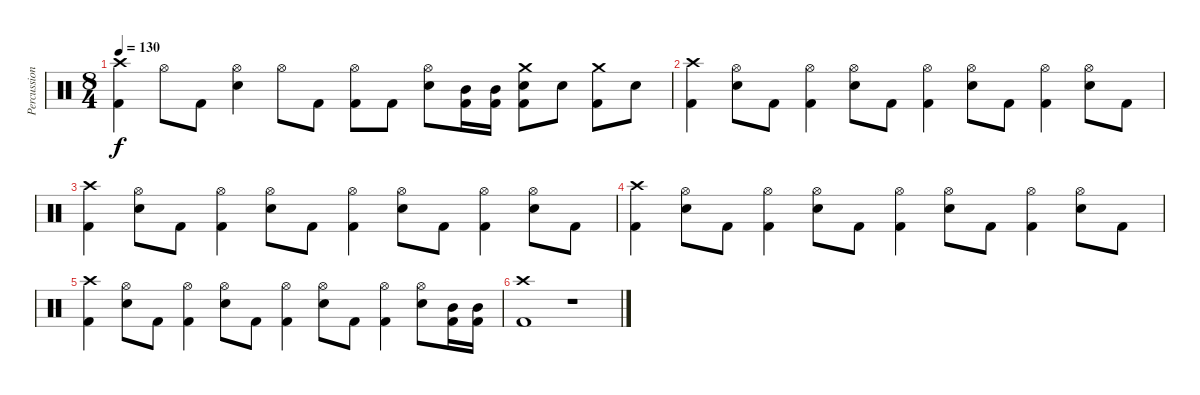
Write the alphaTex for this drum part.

\track ("Percussion" "Percussion") {instrument percussion}
\staff {score}
\articulation defaults
\ts (8 4)
\tempo 130
\clef neutral
\ks c
("Crash high (hit)" "Kick (hit) 2").4{dy f} "Hi-Hat (open)".8 "Kick (hit) 2".8 ("Hi-Hat (open)" "Snare (hit) 2").4 "Hi-Hat (open)".8 "Kick (hit) 2".8 ("Hi-Hat (open)" "Kick (hit) 2").8 "Kick (hit) 2".8 ("Hi-Hat (open)" "Snare (hit) 2").8 ("Mid Tom (hit)" "Kick (hit) 2").16 ("Mid Tom (hit)" "Kick (hit) 2").16 ("Crash medium (hit)" "Snare (hit) 2" "Kick (hit) 2").8 "Snare (hit) 2".8 ("Crash medium (hit)" "Kick (hit) 2").8 "Snare (hit) 2".8 |
("Crash high (hit)" "Kick (hit) 2").4 ("Hi-Hat (open)" "Snare (hit) 2").8 "Kick (hit) 2".8 ("Hi-Hat (open)" "Kick (hit) 2").4 ("Hi-Hat (open)" "Snare (hit) 2").8 "Kick (hit) 2".8 ("Hi-Hat (open)" "Kick (hit) 2").4 ("Hi-Hat (open)" "Snare (hit) 2").8 "Kick (hit) 2".8 ("Hi-Hat (open)" "Kick (hit) 2").4 ("Hi-Hat (open)" "Snare (hit) 2").8 "Kick (hit) 2".8 |
("Crash high (hit)" "Kick (hit) 2").4 ("Hi-Hat (open)" "Snare (hit) 2").8 "Kick (hit) 2".8 ("Hi-Hat (open)" "Kick (hit) 2").4 ("Hi-Hat (open)" "Snare (hit) 2").8 "Kick (hit) 2".8 ("Hi-Hat (open)" "Kick (hit) 2").4 ("Hi-Hat (open)" "Snare (hit) 2").8 "Kick (hit) 2".8 ("Hi-Hat (open)" "Kick (hit) 2").4 ("Hi-Hat (open)" "Snare (hit) 2").8 "Kick (hit) 2".8 |
("Crash high (hit)" "Kick (hit) 2").4 ("Hi-Hat (open)" "Snare (hit) 2").8 "Kick (hit) 2".8 ("Hi-Hat (open)" "Kick (hit) 2").4 ("Hi-Hat (open)" "Snare (hit) 2").8 "Kick (hit) 2".8 ("Hi-Hat (open)" "Kick (hit) 2").4 ("Hi-Hat (open)" "Snare (hit) 2").8 "Kick (hit) 2".8 ("Hi-Hat (open)" "Kick (hit) 2").4 ("Hi-Hat (open)" "Snare (hit) 2").8 "Kick (hit) 2".8 |
("Crash high (hit)" "Kick (hit) 2").4 ("Hi-Hat (open)" "Snare (hit) 2").8 "Kick (hit) 2".8 ("Hi-Hat (open)" "Kick (hit) 2").4 ("Hi-Hat (open)" "Snare (hit) 2").8 "Kick (hit) 2".8 ("Hi-Hat (open)" "Kick (hit) 2").4 ("Hi-Hat (open)" "Snare (hit) 2").8 "Kick (hit) 2".8 ("Hi-Hat (open)" "Kick (hit) 2").4 ("Hi-Hat (open)" "Snare (hit) 2").8 ("Mid Tom (hit)" "Kick (hit) 2").16 ("Mid Tom (hit)" "Kick (hit) 2").16 |
("Crash high (hit)" "Kick (hit) 2").1 r.1
